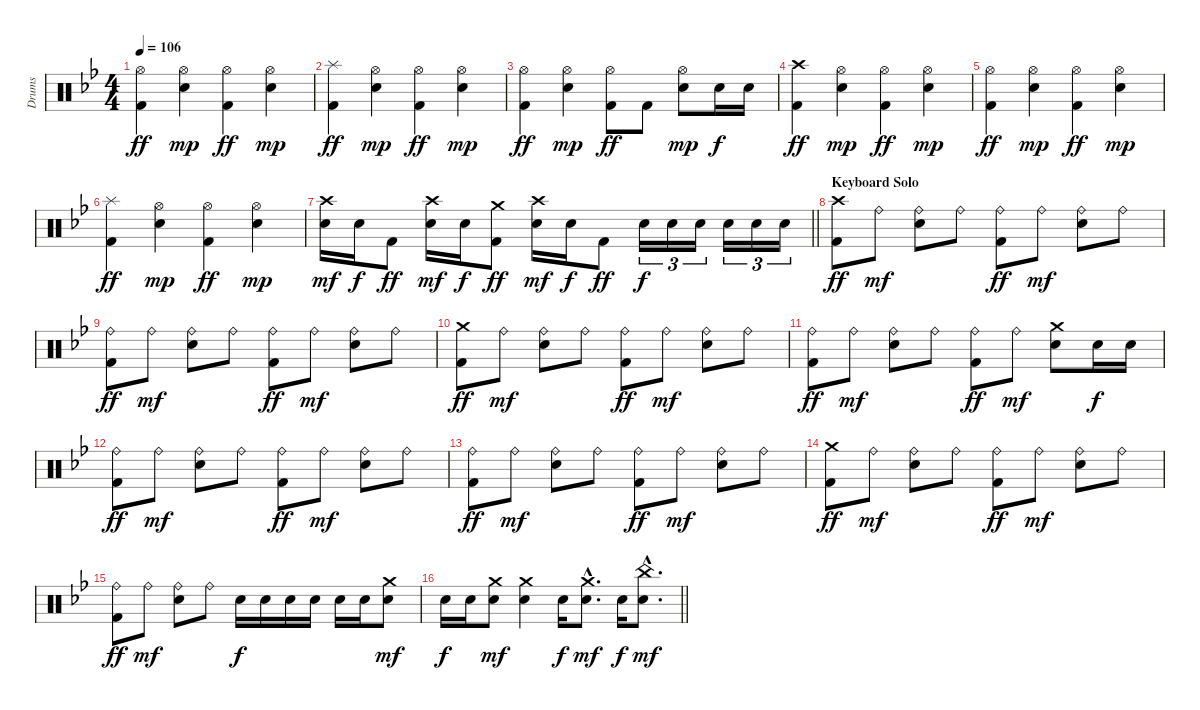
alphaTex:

\track ("Drums" "Drums") {instrument percussion}
\staff {score}
\articulation defaults
\ts (4 4)
\tempo 106
\clef neutral
\ks bb
("Hi-Hat (open)" "Kick (hit) 2").4{dy ff} ("Hi-Hat (open)" "Electric Snare (hit)").4{dy mp} ("Hi-Hat (open)" "Kick (hit) 2").4{dy ff} ("Hi-Hat (open)" "Electric Snare (hit)").4{dy mp} |
("Splash (hit)" "Kick (hit) 2").4{dy ff} ("Hi-Hat (open)" "Electric Snare (hit)").4{dy mp} ("Hi-Hat (open)" "Kick (hit) 2").4{dy ff} ("Hi-Hat (open)" "Electric Snare (hit)").4{dy mp} |
("Hi-Hat (open)" "Kick (hit) 2").4{dy ff} ("Hi-Hat (open)" "Electric Snare (hit)").4{dy mp} ("Hi-Hat (open)" "Kick (hit) 2").8{dy ff} "Kick (hit) 2".8 ("Hi-Hat (open)" "Electric Snare (hit)").8{dy mp} "Electric Snare (hit)".16{dy f} "Electric Snare (hit)".16 |
("Crash high (hit)" "Kick (hit) 2").4{dy ff} ("Hi-Hat (open)" "Electric Snare (hit)").4{dy mp} ("Hi-Hat (open)" "Kick (hit) 2").4{dy ff} ("Hi-Hat (open)" "Electric Snare (hit)").4{dy mp} |
("Hi-Hat (open)" "Kick (hit) 2").4{dy ff} ("Hi-Hat (open)" "Electric Snare (hit)").4{dy mp} ("Hi-Hat (open)" "Kick (hit) 2").4{dy ff} ("Hi-Hat (open)" "Electric Snare (hit)").4{dy mp} |
("Splash (hit)" "Kick (hit) 2").4{dy ff} ("Hi-Hat (open)" "Electric Snare (hit)").4{dy mp} ("Hi-Hat (open)" "Kick (hit) 2").4{dy ff} ("Hi-Hat (open)" "Electric Snare (hit)").4{dy mp} |
\barLineRight lightlight
("Crash high (hit)" "Electric Snare (hit)").16{dy mf} "Electric Snare (hit)".16{dy f} "Kick (hit) 2".8{dy ff} ("Crash high (hit)" "Electric Snare (hit)").16{dy mf} "Electric Snare (hit)".16{dy f} ("Crash medium (hit)" "Kick (hit) 2").8{dy ff} ("Crash high (hit)" "Electric Snare (hit)").16{dy mf} "Electric Snare (hit)".16{dy f} "Kick (hit) 2".8{dy ff} "Electric Snare (hit)".16{tu (3 2) dy f} "Electric Snare (hit)".16{tu (3 2)} "Electric Snare (hit)".16{tu (3 2)} "Electric Snare (hit)".16{tu (3 2)} "Electric Snare (hit)".16{tu (3 2)} "Electric Snare (hit)".16{tu (3 2)} |
\section ("" "Keyboard Solo")
("Crash high (hit)" "Kick (hit) 2").8{dy ff} "Ride (bell)".8{dy mf} ("Ride (bell)" "Electric Snare (hit)").8 "Ride (bell)".8 ("Ride (bell)" "Kick (hit) 2").8{dy ff} "Ride (bell)".8{dy mf} ("Ride (bell)" "Electric Snare (hit)").8 "Ride (bell)".8 |
("Ride (bell)" "Kick (hit) 2").8{dy ff} "Ride (bell)".8{dy mf} ("Ride (bell)" "Electric Snare (hit)").8 "Ride (bell)".8 ("Ride (bell)" "Kick (hit) 2").8{dy ff} "Ride (bell)".8{dy mf} ("Ride (bell)" "Electric Snare (hit)").8 "Ride (bell)".8 |
("Crash medium (hit)" "Kick (hit) 2").8{dy ff} "Ride (bell)".8{dy mf} ("Ride (bell)" "Electric Snare (hit)").8 "Ride (bell)".8 ("Ride (bell)" "Kick (hit) 2").8{dy ff} "Ride (bell)".8{dy mf} ("Ride (bell)" "Electric Snare (hit)").8 "Ride (bell)".8 |
("Ride (bell)" "Kick (hit) 2").8{dy ff} "Ride (bell)".8{dy mf} ("Ride (bell)" "Electric Snare (hit)").8 "Ride (bell)".8 ("Ride (bell)" "Kick (hit) 2").8{dy ff} "Ride (bell)".8{dy mf} ("Crash medium (hit)" "Electric Snare (hit)").8 "Electric Snare (hit)".16{dy f} "Electric Snare (hit)".16 |
("Ride (bell)" "Kick (hit) 2").8{dy ff} "Ride (bell)".8{dy mf} ("Ride (bell)" "Electric Snare (hit)").8 "Ride (bell)".8 ("Ride (bell)" "Kick (hit) 2").8{dy ff} "Ride (bell)".8{dy mf} ("Ride (bell)" "Electric Snare (hit)").8 "Ride (bell)".8 |
("Ride (bell)" "Kick (hit) 2").8{dy ff} "Ride (bell)".8{dy mf} ("Ride (bell)" "Electric Snare (hit)").8 "Ride (bell)".8 ("Ride (bell)" "Kick (hit) 2").8{dy ff} "Ride (bell)".8{dy mf} ("Ride (bell)" "Electric Snare (hit)").8 "Ride (bell)".8 |
("Crash medium (hit)" "Kick (hit) 2").8{dy ff} "Ride (bell)".8{dy mf} ("Ride (bell)" "Electric Snare (hit)").8 "Ride (bell)".8 ("Ride (bell)" "Kick (hit) 2").8{dy ff} "Ride (bell)".8{dy mf} ("Ride (bell)" "Electric Snare (hit)").8 "Ride (bell)".8 |
("Ride (bell)" "Kick (hit) 2").8{dy ff} "Ride (bell)".8{dy mf} ("Ride (bell)" "Electric Snare (hit)").8 "Ride (bell)".8 "Electric Snare (hit)".16{dy f} "Electric Snare (hit)".16 "Electric Snare (hit)".16 "Electric Snare (hit)".16 "Electric Snare (hit)".16 "Electric Snare (hit)".16 ("Crash medium (hit)" "Electric Snare (hit)").8{dy mf} |
\barLineRight lightlight "Electric Snare (hit)".16{dy f} "Electric Snare (hit)".16
("Crash medium (hit)" "Electric Snare (hit)").8{dy mf} ("Crash medium (hit)" "Electric Snare (hit)").4 "Electric Snare (hit)".16{dy f} ("Crash medium (hit)"{hac} "Electric Snare (hit)"{hac}).8{d dy mf} "Electric Snare (hit)".16{dy f} ("China (hit)"{hac} "Electric Snare (hit)"{hac}).8{d dy mf}
